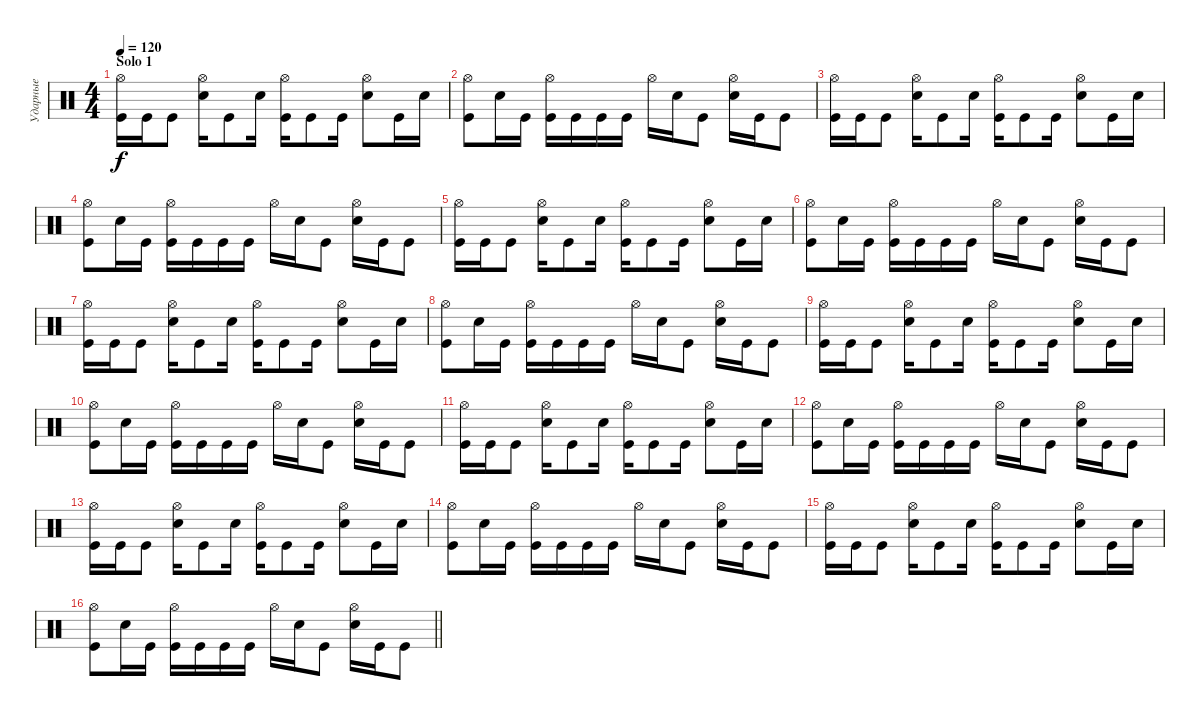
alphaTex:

\track ("Ударные" "Ударные") {instrument percussion}
\staff {score}
\articulation defaults
\ts (4 4)
\section ("" "Solo 1")
\tempo 120
\clef neutral
\ks c
("Hi-Hat (open)" "Kick (hit)").16{dy f} "Kick (hit)".16 "Kick (hit)".8 ("Hi-Hat (open)" "Electric Snare (hit)").16 "Kick (hit)".8 "Electric Snare (hit)".16 ("Hi-Hat (open)" "Kick (hit)").16 "Kick (hit)".8 "Kick (hit)".16 ("Hi-Hat (open)" "Electric Snare (hit)").8 "Kick (hit)".16 "Electric Snare (hit)".16 |
("Hi-Hat (open)" "Kick (hit)").8 "Electric Snare (hit)".16 "Kick (hit)".16 ("Hi-Hat (open)" "Kick (hit)").16 "Kick (hit)".16 "Kick (hit)".16 "Kick (hit)".16 "Hi-Hat (open)".16 "Electric Snare (hit)".16 "Kick (hit)".8 ("Hi-Hat (open)" "Electric Snare (hit)").16 "Kick (hit)".16 "Kick (hit)".8 |
("Hi-Hat (open)" "Kick (hit)").16 "Kick (hit)".16 "Kick (hit)".8 ("Hi-Hat (open)" "Electric Snare (hit)").16 "Kick (hit)".8 "Electric Snare (hit)".16 ("Hi-Hat (open)" "Kick (hit)").16 "Kick (hit)".8 "Kick (hit)".16 ("Hi-Hat (open)" "Electric Snare (hit)").8 "Kick (hit)".16 "Electric Snare (hit)".16 |
("Hi-Hat (open)" "Kick (hit)").8 "Electric Snare (hit)".16 "Kick (hit)".16 ("Hi-Hat (open)" "Kick (hit)").16 "Kick (hit)".16 "Kick (hit)".16 "Kick (hit)".16 "Hi-Hat (open)".16 "Electric Snare (hit)".16 "Kick (hit)".8 ("Hi-Hat (open)" "Electric Snare (hit)").16 "Kick (hit)".16 "Kick (hit)".8 |
("Hi-Hat (open)" "Kick (hit)").16 "Kick (hit)".16 "Kick (hit)".8 ("Hi-Hat (open)" "Electric Snare (hit)").16 "Kick (hit)".8 "Electric Snare (hit)".16 ("Hi-Hat (open)" "Kick (hit)").16 "Kick (hit)".8 "Kick (hit)".16 ("Hi-Hat (open)" "Electric Snare (hit)").8 "Kick (hit)".16 "Electric Snare (hit)".16 |
("Hi-Hat (open)" "Kick (hit)").8 "Electric Snare (hit)".16 "Kick (hit)".16 ("Hi-Hat (open)" "Kick (hit)").16 "Kick (hit)".16 "Kick (hit)".16 "Kick (hit)".16 "Hi-Hat (open)".16 "Electric Snare (hit)".16 "Kick (hit)".8 ("Hi-Hat (open)" "Electric Snare (hit)").16 "Kick (hit)".16 "Kick (hit)".8 |
("Hi-Hat (open)" "Kick (hit)").16 "Kick (hit)".16 "Kick (hit)".8 ("Hi-Hat (open)" "Electric Snare (hit)").16 "Kick (hit)".8 "Electric Snare (hit)".16 ("Hi-Hat (open)" "Kick (hit)").16 "Kick (hit)".8 "Kick (hit)".16 ("Hi-Hat (open)" "Electric Snare (hit)").8 "Kick (hit)".16 "Electric Snare (hit)".16 |
("Hi-Hat (open)" "Kick (hit)").8 "Electric Snare (hit)".16 "Kick (hit)".16 ("Hi-Hat (open)" "Kick (hit)").16 "Kick (hit)".16 "Kick (hit)".16 "Kick (hit)".16 "Hi-Hat (open)".16 "Electric Snare (hit)".16 "Kick (hit)".8 ("Hi-Hat (open)" "Electric Snare (hit)").16 "Kick (hit)".16 "Kick (hit)".8 |
("Hi-Hat (open)" "Kick (hit)").16 "Kick (hit)".16 "Kick (hit)".8 ("Hi-Hat (open)" "Electric Snare (hit)").16 "Kick (hit)".8 "Electric Snare (hit)".16 ("Hi-Hat (open)" "Kick (hit)").16 "Kick (hit)".8 "Kick (hit)".16 ("Hi-Hat (open)" "Electric Snare (hit)").8 "Kick (hit)".16 "Electric Snare (hit)".16 |
("Hi-Hat (open)" "Kick (hit)").8 "Electric Snare (hit)".16 "Kick (hit)".16 ("Hi-Hat (open)" "Kick (hit)").16 "Kick (hit)".16 "Kick (hit)".16 "Kick (hit)".16 "Hi-Hat (open)".16 "Electric Snare (hit)".16 "Kick (hit)".8 ("Hi-Hat (open)" "Electric Snare (hit)").16 "Kick (hit)".16 "Kick (hit)".8 |
("Hi-Hat (open)" "Kick (hit)").16 "Kick (hit)".16 "Kick (hit)".8 ("Hi-Hat (open)" "Electric Snare (hit)").16 "Kick (hit)".8 "Electric Snare (hit)".16 ("Hi-Hat (open)" "Kick (hit)").16 "Kick (hit)".8 "Kick (hit)".16 ("Hi-Hat (open)" "Electric Snare (hit)").8 "Kick (hit)".16 "Electric Snare (hit)".16 |
("Hi-Hat (open)" "Kick (hit)").8 "Electric Snare (hit)".16 "Kick (hit)".16 ("Hi-Hat (open)" "Kick (hit)").16 "Kick (hit)".16 "Kick (hit)".16 "Kick (hit)".16 "Hi-Hat (open)".16 "Electric Snare (hit)".16 "Kick (hit)".8 ("Hi-Hat (open)" "Electric Snare (hit)").16 "Kick (hit)".16 "Kick (hit)".8 |
("Hi-Hat (open)" "Kick (hit)").16 "Kick (hit)".16 "Kick (hit)".8 ("Hi-Hat (open)" "Electric Snare (hit)").16 "Kick (hit)".8 "Electric Snare (hit)".16 ("Hi-Hat (open)" "Kick (hit)").16 "Kick (hit)".8 "Kick (hit)".16 ("Hi-Hat (open)" "Electric Snare (hit)").8 "Kick (hit)".16 "Electric Snare (hit)".16 |
("Hi-Hat (open)" "Kick (hit)").8 "Electric Snare (hit)".16 "Kick (hit)".16 ("Hi-Hat (open)" "Kick (hit)").16 "Kick (hit)".16 "Kick (hit)".16 "Kick (hit)".16 "Hi-Hat (open)".16 "Electric Snare (hit)".16 "Kick (hit)".8 ("Hi-Hat (open)" "Electric Snare (hit)").16 "Kick (hit)".16 "Kick (hit)".8 |
("Hi-Hat (open)" "Kick (hit)").16 "Kick (hit)".16 "Kick (hit)".8 ("Hi-Hat (open)" "Electric Snare (hit)").16 "Kick (hit)".8 "Electric Snare (hit)".16 ("Hi-Hat (open)" "Kick (hit)").16 "Kick (hit)".8 "Kick (hit)".16 ("Hi-Hat (open)" "Electric Snare (hit)").8 "Kick (hit)".16 "Electric Snare (hit)".16 |
\barLineRight lightlight
("Hi-Hat (open)" "Kick (hit)").8 "Electric Snare (hit)".16 "Kick (hit)".16 ("Hi-Hat (open)" "Kick (hit)").16 "Kick (hit)".16 "Kick (hit)".16 "Kick (hit)".16 "Hi-Hat (open)".16 "Electric Snare (hit)".16 "Kick (hit)".8 ("Hi-Hat (open)" "Electric Snare (hit)").16 "Kick (hit)".16 "Kick (hit)".8
